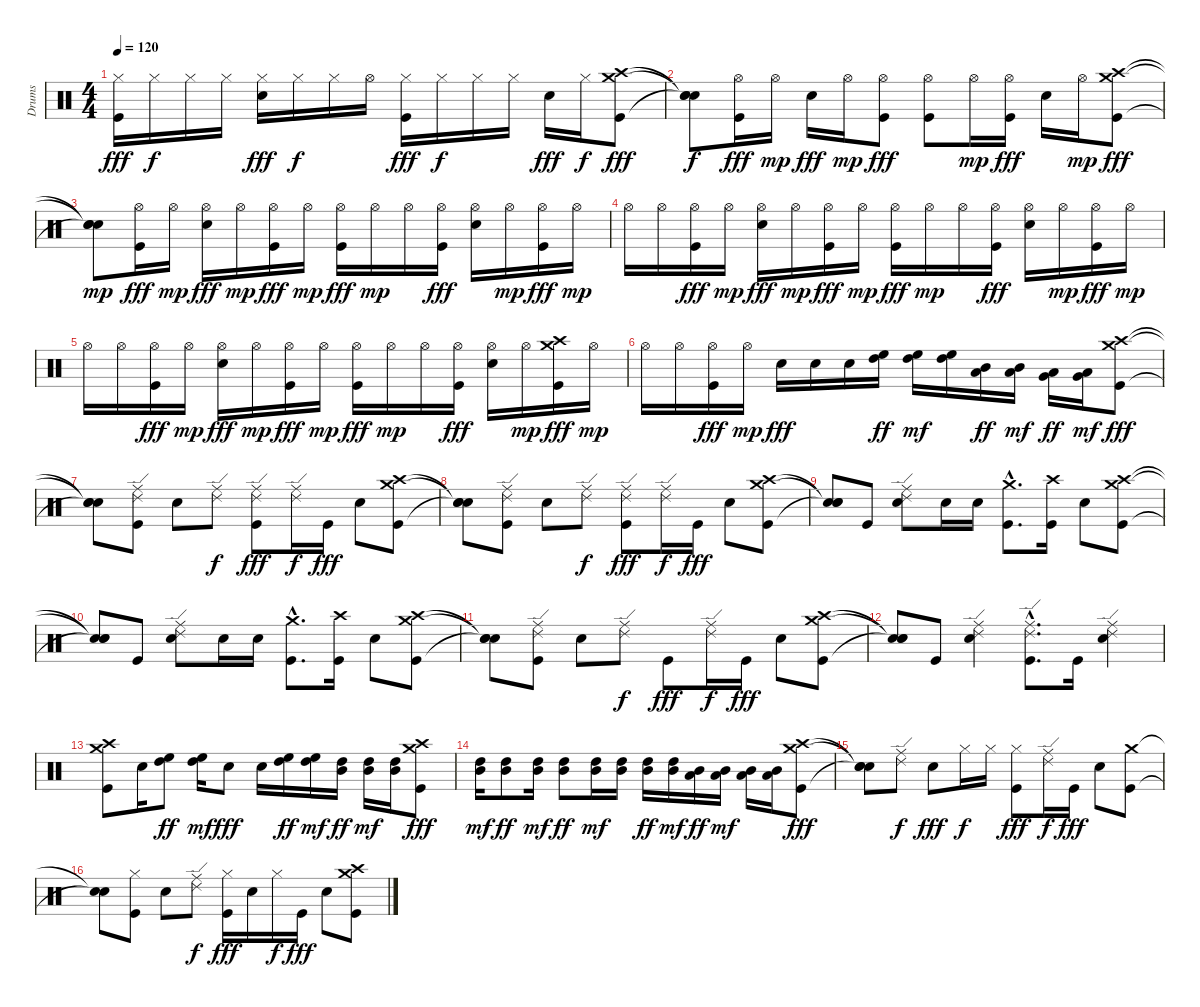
\track ("Drums" "Drums") {instrument percussion}
\staff {score}
\articulation defaults
\ts (4 4)
\tempo 120
\clef neutral
\ks c
("Hi-Hat (closed)" "Kick (hit)").16{dy fff} "Hi-Hat (closed)".16{dy f} "Hi-Hat (closed)".16 "Hi-Hat (closed)".16 ("Hi-Hat (closed)" "Snare (hit) 2").16{dy fff} "Hi-Hat (closed)".16{dy f} "Hi-Hat (closed)".16 "Hi-Hat (open)".16 ("Hi-Hat (closed)" "Kick (hit)").16{dy fff} "Hi-Hat (closed)".16{dy f} "Hi-Hat (closed)".16 "Hi-Hat (closed)".16 "Snare (hit) 2".16{dy fff} "Hi-Hat (closed)".16{dy f} ("Crash high (hit)" "Crash medium (hit)" "Kick (hit)").8{dy fff} |
("Snare (hit)"{t} "Snare (hit)"{t} "Snare (hit)"{t}).8{dy f} ("Hi-Hat (open)" "Kick (hit)").16{dy fff} "Hi-Hat (open)".16{dy mp} "Snare (hit) 2".16{dy fff} "Hi-Hat (open)".16{dy mp} ("Hi-Hat (open)" "Kick (hit)").8{dy fff} ("Hi-Hat (open)" "Kick (hit)").8 "Hi-Hat (open)".16{dy mp} ("Hi-Hat (open)" "Kick (hit)").16{dy fff} "Snare (hit) 2".16 "Hi-Hat (open)".16{dy mp} ("Crash high (hit)" "Crash medium (hit)" "Kick (hit)").8{dy fff} |
("Snare (hit)"{t} "Snare (hit)"{t} "Snare (hit)"{t}).8{dy mp} ("Hi-Hat (open)" "Kick (hit)").16{dy fff} "Hi-Hat (open)".16{dy mp} ("Hi-Hat (open)" "Snare (hit) 2").16{dy fff} "Hi-Hat (open)".16{dy mp} ("Hi-Hat (open)" "Kick (hit)").16{dy fff} "Hi-Hat (open)".16{dy mp} ("Hi-Hat (open)" "Kick (hit)").16{dy fff} "Hi-Hat (open)".16{dy mp} "Hi-Hat (open)".16 ("Hi-Hat (open)" "Kick (hit)").16{dy fff} ("Hi-Hat (open)" "Snare (hit) 2").16 "Hi-Hat (open)".16{dy mp} ("Hi-Hat (open)" "Kick (hit)").16{dy fff} "Hi-Hat (open)".16{dy mp} |
"Hi-Hat (open)".16 "Hi-Hat (open)".16 ("Hi-Hat (open)" "Kick (hit)").16{dy fff} "Hi-Hat (open)".16{dy mp} ("Hi-Hat (open)" "Snare (hit) 2").16{dy fff} "Hi-Hat (open)".16{dy mp} ("Hi-Hat (open)" "Kick (hit)").16{dy fff} "Hi-Hat (open)".16{dy mp} ("Hi-Hat (open)" "Kick (hit)").16{dy fff} "Hi-Hat (open)".16{dy mp} "Hi-Hat (open)".16 ("Hi-Hat (open)" "Kick (hit)").16{dy fff} ("Hi-Hat (open)" "Snare (hit) 2").16 "Hi-Hat (open)".16{dy mp} ("Hi-Hat (open)" "Kick (hit)").16{dy fff} "Hi-Hat (open)".16{dy mp} |
"Hi-Hat (open)".16 "Hi-Hat (open)".16 ("Hi-Hat (open)" "Kick (hit)").16{dy fff} "Hi-Hat (open)".16{dy mp} ("Hi-Hat (open)" "Snare (hit) 2").16{dy fff} "Hi-Hat (open)".16{dy mp} ("Hi-Hat (open)" "Kick (hit)").16{dy fff} "Hi-Hat (open)".16{dy mp} ("Hi-Hat (open)" "Kick (hit)").16{dy fff} "Hi-Hat (open)".16{dy mp} "Hi-Hat (open)".16 ("Hi-Hat (open)" "Kick (hit)").16{dy fff} ("Hi-Hat (open)" "Snare (hit) 2").16 "Hi-Hat (open)".16{dy mp} ("Crash high (hit)" "Crash medium (hit)" "Kick (hit)").16{dy fff} "Hi-Hat (open)".16{dy mp} |
"Hi-Hat (open)".16 "Hi-Hat (open)".16 ("Hi-Hat (open)" "Kick (hit)").16{dy fff} "Hi-Hat (open)".16{dy mp} "Snare (hit) 2".16{dy fff} "Snare (hit) 2".16 "Snare (hit) 2".16 ("High Floor Tom (hit)" "High Tom (hit)").16{dy ff} ("High Floor Tom (hit)" "High Tom (hit)").16{dy mf} ("High Floor Tom (hit)" "High Tom (hit)").16 ("Mid Tom (hit)" "Low Tom (hit)").16{dy ff} ("Mid Tom (hit)" "Low Tom (hit)").16{dy mf} ("Very Low Tom (hit)" "Low Floor Tom (hit)").16{dy ff} ("Very Low Tom (hit)" "Low Floor Tom (hit)").16{dy mf} ("Crash high (hit)" "Crash medium (hit)" "Kick (hit)").8{dy fff} |
("Snare (hit)"{t} "Snare (hit)"{t} "Snare (hit)"{t}).8 ("Ride (edge) 2" "Ride (middle)" "Kick (hit)").8 "Snare (hit) 2".8 ("Ride (edge) 2" "Ride (middle)").8{dy f} ("Ride (edge) 2" "Ride (middle)" "Kick (hit)").8{dy fff} ("Ride (edge) 2" "Ride (middle)").16{dy f} "Kick (hit)".16{dy fff} "Snare (hit) 2".8 ("Crash high (hit)" "Crash medium (hit)" "Kick (hit)").8 |
("Snare (hit)"{t} "Snare (hit)"{t} "Snare (hit)"{t}).8 ("Ride (edge) 2" "Ride (middle)" "Kick (hit)").8 "Snare (hit) 2".8 ("Ride (edge) 2" "Ride (middle)").8{dy f} ("Ride (edge) 2" "Ride (middle)" "Kick (hit)").8{dy fff} ("Ride (edge) 2" "Ride (middle)").16{dy f} "Kick (hit)".16{dy fff} "Snare (hit) 2".8 ("Crash high (hit)" "Crash medium (hit)" "Kick (hit)").8 |
("Snare (hit)"{t} "Snare (hit)"{t} "Snare (hit)"{t}).8 "Kick (hit)".8 ("Ride (edge) 2" "Ride (middle)" "Snare (hit) 2").8 "Snare (hit) 2".16 "Snare (hit) 2".16 ("Crash medium (hit)"{hac} "Kick (hit)"{hac}).8{d} ("Crash high (hit)" "Kick (hit)").16 "Snare (hit) 2".8 ("Crash high (hit)" "Crash medium (hit)" "Kick (hit)").8 |
("Snare (hit)"{t} "Snare (hit)"{t} "Snare (hit)"{t}).8 "Kick (hit)".8 ("Ride (edge) 2" "Ride (middle)" "Snare (hit) 2").8 "Snare (hit) 2".16 "Snare (hit) 2".16 ("Crash medium (hit)"{hac} "Kick (hit)"{hac}).8{d} ("Crash high (hit)" "Kick (hit)").16 "Snare (hit) 2".8 ("Crash high (hit)" "Crash medium (hit)" "Kick (hit)").8 |
("Snare (hit)"{t} "Snare (hit)"{t} "Snare (hit)"{t}).8 ("Ride (edge) 2" "Ride (middle)" "Kick (hit)").8 "Snare (hit) 2".8 ("Ride (edge) 2" "Ride (middle)").8{dy f} "Kick (hit)".8{dy fff} ("Ride (edge) 2" "Ride (middle)").16{dy f} "Kick (hit)".16{dy fff} "Snare (hit) 2".8 ("Crash high (hit)" "Crash medium (hit)" "Kick (hit)").8 |
("Snare (hit)"{t} "Snare (hit)"{t} "Snare (hit)"{t}).8 "Kick (hit)".8 ("Ride (edge) 2" "Ride (middle)" "Snare (hit) 2").4 ("Ride (edge) 2"{hac} "Ride (middle)"{hac} "Kick (hit)"{hac}).8{d} "Kick (hit)".16 ("Ride (edge) 2" "Ride (middle)" "Snare (hit) 2").4 |
("Crash high (hit)" "Crash medium (hit)" "Kick (hit)").8 "Snare (hit) 2".16 ("High Floor Tom (hit)" "High Tom (hit)").8{dy ff} ("High Floor Tom (hit)" "High Tom (hit)").16{dy mf} "Snare (hit) 2".8{dy fff} "Snare (hit) 2".16 ("High Floor Tom (hit)" "High Tom (hit)").16{dy ff} ("High Floor Tom (hit)" "High Tom (hit)").16{dy mf} ("High Tom (hit)" "Mid Tom (hit)").16{dy ff} ("High Tom (hit)" "Mid Tom (hit)").16{dy mf} ("High Tom (hit)" "Mid Tom (hit)").16 ("Crash high (hit)" "Crash medium (hit)" "Kick (hit)").8{dy fff} |
("High Tom (hit)" "Mid Tom (hit)").16{dy mf} ("High Tom (hit)" "Mid Tom (hit)").8{dy ff} ("High Tom (hit)" "Mid Tom (hit)").16{dy mf} ("High Tom (hit)" "Mid Tom (hit)").8{dy ff} ("High Tom (hit)" "Mid Tom (hit)").16{dy mf} ("High Tom (hit)" "Mid Tom (hit)").16 ("High Tom (hit)" "Mid Tom (hit)").16{dy ff} ("High Tom (hit)" "Mid Tom (hit)").16{dy mf} ("Mid Tom (hit)" "Low Tom (hit)").16{dy ff} ("Mid Tom (hit)" "Low Tom (hit)").16{dy mf} ("Mid Tom (hit)" "Low Tom (hit)").16 ("Mid Tom (hit)" "Low Tom (hit)").16 ("Crash high (hit)" "Crash medium (hit)" "Kick (hit)").8{dy fff} |
("Snare (hit)"{t} "Snare (hit)"{t} "Snare (hit)"{t}).8 ("Ride (edge) 2" "Ride (middle)").8{dy f} "Snare (hit) 2".8{dy fff} "Hi-Hat (closed)".16{dy f} "Hi-Hat (closed)".16 ("Hi-Hat (closed)" "Kick (hit)").8{dy fff} ("Ride (edge) 2" "Ride (middle)").16{dy f} "Kick (hit)".16{dy fff} "Snare (hit) 2".8 ("Crash medium (hit)" "Kick (hit)").8 |
("Snare (hit)"{t} "Snare (hit)"{t}).8 ("Hi-Hat (closed)" "Kick (hit)").8 "Snare (hit) 2".8 ("Ride (edge) 2" "Ride (middle)").8{dy f} ("Hi-Hat (closed)" "Kick (hit)").16{dy fff} "Snare (hit) 2".16 "Hi-Hat (closed)".16{dy f} "Kick (hit)".16{dy fff} "Snare (hit) 2".8 ("Crash high (hit)" "Crash medium (hit)" "Kick (hit)").8
